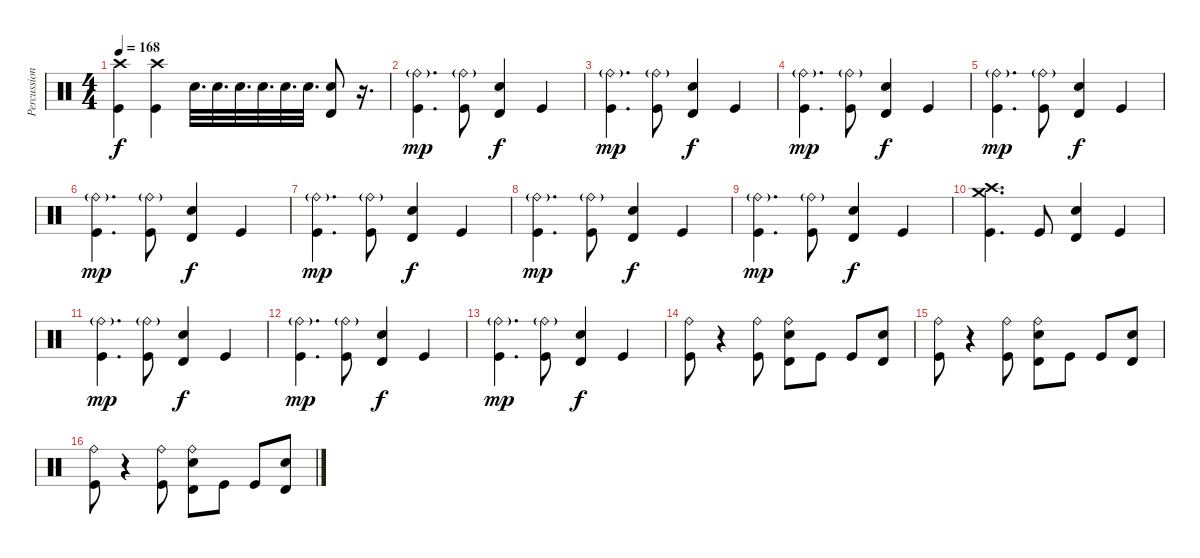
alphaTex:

\track ("Percussion" "Percussion") {instrument percussion}
\staff {score}
\articulation defaults
\ts (4 4)
\tempo 168
\clef neutral
\ks c
("Crash high (hit)" "Kick (hit)").4{dy f} ("Crash high (hit)" "Kick (hit)").4 "Electric Snare (hit)".32{d} "Electric Snare (hit)".32{d} "Electric Snare (hit)".32{d} "Electric Snare (hit)".32{d} "Electric Snare (hit)".32{d} "Electric Snare (hit)".32{d} ("Electric Snare (hit)" "Timbale high (hit)").8 r.16{d} |
("Ride (bell)"{g} "Kick (hit)").4{d dy mp} ("Ride (bell)"{g} "Kick (hit)").8 ("Timbale high (hit)" "Electric Snare (hit)").4{dy f} "Kick (hit)".4 |
("Ride (bell)"{g} "Kick (hit)").4{d dy mp} ("Ride (bell)"{g} "Kick (hit)").8 ("Timbale high (hit)" "Electric Snare (hit)").4{dy f} "Kick (hit)".4 |
("Ride (bell)"{g} "Kick (hit)").4{d dy mp} ("Ride (bell)"{g} "Kick (hit)").8 ("Timbale high (hit)" "Electric Snare (hit)").4{dy f} "Kick (hit)".4 |
("Ride (bell)"{g} "Kick (hit)").4{d dy mp} ("Ride (bell)"{g} "Kick (hit)").8 ("Timbale high (hit)" "Electric Snare (hit)").4{dy f} "Kick (hit)".4 |
("Ride (bell)"{g} "Kick (hit)").4{d dy mp} ("Ride (bell)"{g} "Kick (hit)").8 ("Timbale high (hit)" "Electric Snare (hit)").4{dy f} "Kick (hit)".4 |
("Ride (bell)"{g} "Kick (hit)").4{d dy mp} ("Ride (bell)"{g} "Kick (hit)").8 ("Timbale high (hit)" "Electric Snare (hit)").4{dy f} "Kick (hit)".4 |
("Ride (bell)"{g} "Kick (hit)").4{d dy mp} ("Ride (bell)"{g} "Kick (hit)").8 ("Timbale high (hit)" "Electric Snare (hit)").4{dy f} "Kick (hit)".4 |
("Ride (bell)"{g} "Kick (hit)").4{d dy mp} ("Ride (bell)"{g} "Kick (hit)").8 ("Timbale high (hit)" "Electric Snare (hit)").4{dy f} "Kick (hit)".4 |
("Crash medium (hit)" "Crash high (hit)" "Kick (hit)").4{d} "Kick (hit)".8 ("Timbale high (hit)" "Electric Snare (hit)").4 "Kick (hit)".4 |
("Ride (bell)"{g} "Kick (hit)").4{d dy mp} ("Ride (bell)"{g} "Kick (hit)").8 ("Timbale high (hit)" "Electric Snare (hit)").4{dy f} "Kick (hit)".4 |
("Ride (bell)"{g} "Kick (hit)").4{d dy mp} ("Ride (bell)"{g} "Kick (hit)").8 ("Timbale high (hit)" "Electric Snare (hit)").4{dy f} "Kick (hit)".4 |
("Ride (bell)"{g} "Kick (hit)").4{d dy mp} ("Ride (bell)"{g} "Kick (hit)").8 ("Timbale high (hit)" "Electric Snare (hit)").4{dy f} "Kick (hit)".4 |
("Ride (bell)" "Kick (hit)").8 r.4 ("Ride (bell)" "Kick (hit)").8 ("Ride (bell)" "Timbale high (hit)" "Electric Snare (hit)").8 "Kick (hit)".8 "Kick (hit)".8 ("Timbale high (hit)" "Electric Snare (hit)").8 |
("Ride (bell)" "Kick (hit)").8 r.4 ("Ride (bell)" "Kick (hit)").8 ("Ride (bell)" "Timbale high (hit)" "Electric Snare (hit)").8 "Kick (hit)".8 "Kick (hit)".8 ("Timbale high (hit)" "Electric Snare (hit)").8 |
("Ride (bell)" "Kick (hit)").8 r.4 ("Ride (bell)" "Kick (hit)").8 ("Ride (bell)" "Timbale high (hit)" "Electric Snare (hit)").8 "Kick (hit)".8 "Kick (hit)".8 ("Timbale high (hit)" "Electric Snare (hit)").8
